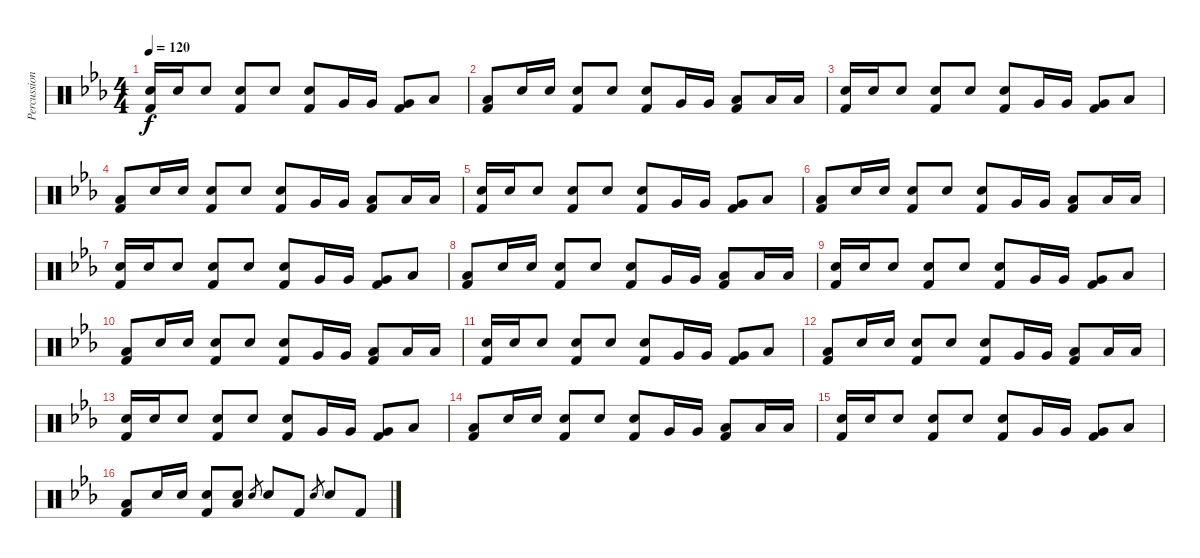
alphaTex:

\track ("Percussion" "Percussion") {instrument percussion}
\staff {score}
\articulation defaults
\ts (4 4)
\tempo 120
\clef neutral
\ks eb
("Electric Snare (hit)" "Kick (hit) 2").16{dy f} "Electric Snare (hit)".16 "Electric Snare (hit)".8 ("Electric Snare (hit)" "Kick (hit) 2").8 "Electric Snare (hit)".8 ("Electric Snare (hit)" "Kick (hit) 2").8 "Very Low Tom (hit)".16 "Very Low Tom (hit)".16 ("Very Low Tom (hit)" "Kick (hit) 2").8 "Low Floor Tom (hit)".8 |
("Low Floor Tom (hit)" "Kick (hit) 2").8 "Electric Snare (hit)".16 "Electric Snare (hit)".16 ("Electric Snare (hit)" "Kick (hit) 2").8 "Electric Snare (hit)".8 ("Electric Snare (hit)" "Kick (hit) 2").8 "Very Low Tom (hit)".16 "Very Low Tom (hit)".16 ("Low Floor Tom (hit)" "Kick (hit) 2").8 "Low Floor Tom (hit)".16 "Low Floor Tom (hit)".16 |
("Electric Snare (hit)" "Kick (hit) 2").16 "Electric Snare (hit)".16 "Electric Snare (hit)".8 ("Electric Snare (hit)" "Kick (hit) 2").8 "Electric Snare (hit)".8 ("Electric Snare (hit)" "Kick (hit) 2").8 "Very Low Tom (hit)".16 "Very Low Tom (hit)".16 ("Very Low Tom (hit)" "Kick (hit) 2").8 "Low Floor Tom (hit)".8 |
("Low Floor Tom (hit)" "Kick (hit) 2").8 "Electric Snare (hit)".16 "Electric Snare (hit)".16 ("Electric Snare (hit)" "Kick (hit) 2").8 "Electric Snare (hit)".8 ("Electric Snare (hit)" "Kick (hit) 2").8 "Very Low Tom (hit)".16 "Very Low Tom (hit)".16 ("Low Floor Tom (hit)" "Kick (hit) 2").8 "Low Floor Tom (hit)".16 "Low Floor Tom (hit)".16 |
("Electric Snare (hit)" "Kick (hit) 2").16 "Electric Snare (hit)".16 "Electric Snare (hit)".8 ("Electric Snare (hit)" "Kick (hit) 2").8 "Electric Snare (hit)".8 ("Electric Snare (hit)" "Kick (hit) 2").8 "Very Low Tom (hit)".16 "Very Low Tom (hit)".16 ("Very Low Tom (hit)" "Kick (hit) 2").8 "Low Floor Tom (hit)".8 |
("Low Floor Tom (hit)" "Kick (hit) 2").8 "Electric Snare (hit)".16 "Electric Snare (hit)".16 ("Electric Snare (hit)" "Kick (hit) 2").8 "Electric Snare (hit)".8 ("Electric Snare (hit)" "Kick (hit) 2").8 "Very Low Tom (hit)".16 "Very Low Tom (hit)".16 ("Low Floor Tom (hit)" "Kick (hit) 2").8 "Low Floor Tom (hit)".16 "Low Floor Tom (hit)".16 |
("Electric Snare (hit)" "Kick (hit) 2").16 "Electric Snare (hit)".16 "Electric Snare (hit)".8 ("Electric Snare (hit)" "Kick (hit) 2").8 "Electric Snare (hit)".8 ("Electric Snare (hit)" "Kick (hit) 2").8 "Very Low Tom (hit)".16 "Very Low Tom (hit)".16 ("Very Low Tom (hit)" "Kick (hit) 2").8 "Low Floor Tom (hit)".8 |
("Low Floor Tom (hit)" "Kick (hit) 2").8 "Electric Snare (hit)".16 "Electric Snare (hit)".16 ("Electric Snare (hit)" "Kick (hit) 2").8 "Electric Snare (hit)".8 ("Electric Snare (hit)" "Kick (hit) 2").8 "Very Low Tom (hit)".16 "Very Low Tom (hit)".16 ("Low Floor Tom (hit)" "Kick (hit) 2").8 "Low Floor Tom (hit)".16 "Low Floor Tom (hit)".16 |
("Electric Snare (hit)" "Kick (hit) 2").16 "Electric Snare (hit)".16 "Electric Snare (hit)".8 ("Electric Snare (hit)" "Kick (hit) 2").8 "Electric Snare (hit)".8 ("Electric Snare (hit)" "Kick (hit) 2").8 "Very Low Tom (hit)".16 "Very Low Tom (hit)".16 ("Very Low Tom (hit)" "Kick (hit) 2").8 "Low Floor Tom (hit)".8 |
("Low Floor Tom (hit)" "Kick (hit) 2").8 "Electric Snare (hit)".16 "Electric Snare (hit)".16 ("Electric Snare (hit)" "Kick (hit) 2").8 "Electric Snare (hit)".8 ("Electric Snare (hit)" "Kick (hit) 2").8 "Very Low Tom (hit)".16 "Very Low Tom (hit)".16 ("Low Floor Tom (hit)" "Kick (hit) 2").8 "Low Floor Tom (hit)".16 "Low Floor Tom (hit)".16 |
("Electric Snare (hit)" "Kick (hit) 2").16 "Electric Snare (hit)".16 "Electric Snare (hit)".8 ("Electric Snare (hit)" "Kick (hit) 2").8 "Electric Snare (hit)".8 ("Electric Snare (hit)" "Kick (hit) 2").8 "Very Low Tom (hit)".16 "Very Low Tom (hit)".16 ("Very Low Tom (hit)" "Kick (hit) 2").8 "Low Floor Tom (hit)".8 |
("Low Floor Tom (hit)" "Kick (hit) 2").8 "Electric Snare (hit)".16 "Electric Snare (hit)".16 ("Electric Snare (hit)" "Kick (hit) 2").8 "Electric Snare (hit)".8 ("Electric Snare (hit)" "Kick (hit) 2").8 "Very Low Tom (hit)".16 "Very Low Tom (hit)".16 ("Low Floor Tom (hit)" "Kick (hit) 2").8 "Low Floor Tom (hit)".16 "Low Floor Tom (hit)".16 |
("Electric Snare (hit)" "Kick (hit) 2").16 "Electric Snare (hit)".16 "Electric Snare (hit)".8 ("Electric Snare (hit)" "Kick (hit) 2").8 "Electric Snare (hit)".8 ("Electric Snare (hit)" "Kick (hit) 2").8 "Very Low Tom (hit)".16 "Very Low Tom (hit)".16 ("Very Low Tom (hit)" "Kick (hit) 2").8 "Low Floor Tom (hit)".8 |
("Low Floor Tom (hit)" "Kick (hit) 2").8 "Electric Snare (hit)".16 "Electric Snare (hit)".16 ("Electric Snare (hit)" "Kick (hit) 2").8 "Electric Snare (hit)".8 ("Electric Snare (hit)" "Kick (hit) 2").8 "Very Low Tom (hit)".16 "Very Low Tom (hit)".16 ("Low Floor Tom (hit)" "Kick (hit) 2").8 "Low Floor Tom (hit)".16 "Low Floor Tom (hit)".16 |
("Electric Snare (hit)" "Kick (hit) 2").16 "Electric Snare (hit)".16 "Electric Snare (hit)".8 ("Electric Snare (hit)" "Kick (hit) 2").8 "Electric Snare (hit)".8 ("Electric Snare (hit)" "Kick (hit) 2").8 "Very Low Tom (hit)".16 "Very Low Tom (hit)".16 ("Very Low Tom (hit)" "Kick (hit) 2").8 "Low Floor Tom (hit)".8 |
("Low Floor Tom (hit)" "Kick (hit) 2").8 "Electric Snare (hit)".16 "Electric Snare (hit)".16 ("Electric Snare (hit)" "Kick (hit) 2").8 ("Electric Snare (hit)" "Low Floor Tom (hit)").8 "Electric Snare (hit)".8{gr} "Electric Snare (hit)".8 "Kick (hit) 2".8 "Electric Snare (hit)".8{gr} "Electric Snare (hit)".8 "Kick (hit) 2".8
